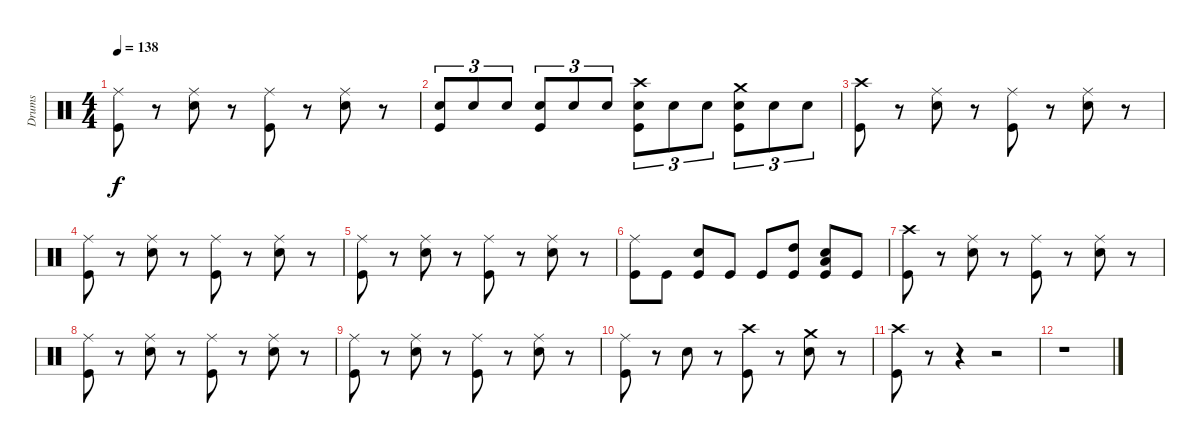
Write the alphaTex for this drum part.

\track ("Drums" "Drums") {instrument percussion}
\staff {score}
\articulation defaults
\ts (4 4)
\tempo 138
\clef neutral
\ks c
("Kick (hit)" "Ride (middle)").8{dy f} r.8 ("Electric Snare (hit)" "Ride (middle)").8 r.8 ("Kick (hit)" "Ride (middle)").8 r.8 ("Electric Snare (hit)" "Ride (middle)").8 r.8 |
("Kick (hit)" "Electric Snare (hit)").8{tu (3 2)} "Electric Snare (hit)".8{tu (3 2)} "Electric Snare (hit)".8{tu (3 2)} ("Kick (hit)" "Electric Snare (hit)").8{tu (3 2)} "Electric Snare (hit)".8{tu (3 2)} "Electric Snare (hit)".8{tu (3 2)} ("Kick (hit)" "Electric Snare (hit)" "Crash high (hit)").8{tu (3 2)} "Electric Snare (hit)".8{tu (3 2)} "Electric Snare (hit)".8{tu (3 2)} ("Kick (hit)" "Electric Snare (hit)" "Crash medium (hit)").8{tu (3 2)} "Electric Snare (hit)".8{tu (3 2)} "Electric Snare (hit)".8{tu (3 2)} |
("Kick (hit)" "Crash high (hit)").8 r.8 ("Electric Snare (hit)" "Ride (middle)").8 r.8 ("Kick (hit)" "Ride (middle)").8 r.8 ("Electric Snare (hit)" "Ride (middle)").8 r.8 |
("Kick (hit)" "Ride (middle)").8 r.8 ("Electric Snare (hit)" "Ride (middle)").8 r.8 ("Kick (hit)" "Ride (middle)").8 r.8 ("Electric Snare (hit)" "Ride (middle)").8 r.8 |
("Kick (hit)" "Ride (middle)").8 r.8 ("Electric Snare (hit)" "Ride (middle)").8 r.8 ("Kick (hit)" "Ride (middle)").8 r.8 ("Electric Snare (hit)" "Ride (middle)").8 r.8 |
("Kick (hit)" "Ride (middle)").8 "Kick (hit)".8 ("Kick (hit)" "Electric Snare (hit)").8 "Kick (hit)".8 "Kick (hit)".8 ("Kick (hit)" "High Tom (hit)").8 ("Kick (hit)" "Electric Snare (hit)" "Low Tom (hit)").8 "Kick (hit)".8 |
("Kick (hit)" "Crash high (hit)").8 r.8 ("Electric Snare (hit)" "Ride (middle)").8 r.8 ("Kick (hit)" "Ride (middle)").8 r.8 ("Electric Snare (hit)" "Ride (middle)").8 r.8 |
("Kick (hit)" "Ride (middle)").8 r.8 ("Electric Snare (hit)" "Ride (middle)").8 r.8 ("Kick (hit)" "Ride (middle)").8 r.8 ("Electric Snare (hit)" "Ride (middle)").8 r.8 |
("Kick (hit)" "Ride (middle)").8 r.8 ("Electric Snare (hit)" "Ride (middle)").8 r.8 ("Kick (hit)" "Ride (middle)").8 r.8 ("Electric Snare (hit)" "Ride (middle)").8 r.8 |
("Kick (hit)" "Ride (middle)").8 r.8 "Electric Snare (hit)".8 r.8 ("Kick (hit)" "Crash high (hit)").8 r.8 ("Electric Snare (hit)" "Crash medium (hit)").8 r.8 |
("Kick (hit)" "Crash high (hit)").8 r.8 r.4 r.2 |
r.1
